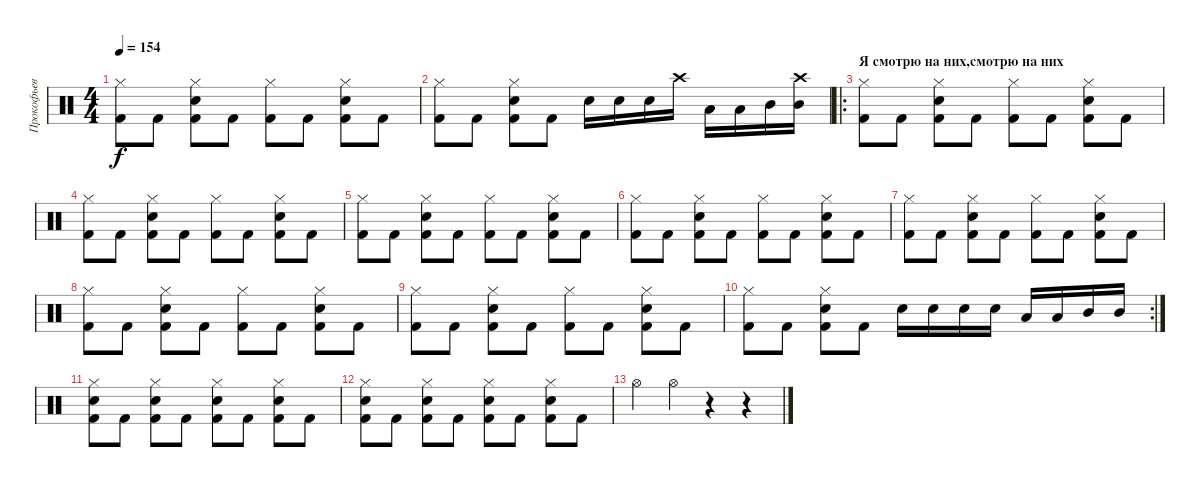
\track ("Прокофьев" "Прокофьев") {instrument percussion}
\staff {score}
\articulation defaults
\ts (4 4)
\tempo 154
\clef neutral
\ks c
("Hi-Hat (closed)" "Kick (hit) 2").8{dy f} "Kick (hit) 2".8 ("Hi-Hat (closed)" "Snare (hit) 2" "Kick (hit) 2").8 "Kick (hit) 2".8 ("Hi-Hat (closed)" "Kick (hit) 2").8 "Kick (hit) 2".8 ("Hi-Hat (closed)" "Snare (hit) 2" "Kick (hit) 2").8 "Kick (hit) 2".8 |
("Hi-Hat (closed)" "Kick (hit) 2").8 "Kick (hit) 2".8 ("Hi-Hat (closed)" "Snare (hit) 2" "Kick (hit) 2").8 "Kick (hit) 2".8 "Snare (hit) 2".16 "Snare (hit) 2".16 "Snare (hit) 2".16 "Crash high (hit)".16 "Low Tom (hit)".16 "Low Tom (hit)".16 "Mid Tom (hit)".16 ("Crash high (hit)" "Mid Tom (hit)").16 |
\ro
\section ("" "Я смотрю на них,смотрю на них")
("Hi-Hat (closed)" "Kick (hit) 2").8 "Kick (hit) 2".8 ("Hi-Hat (closed)" "Snare (hit) 2" "Kick (hit) 2").8 "Kick (hit) 2".8 ("Hi-Hat (closed)" "Kick (hit) 2").8 "Kick (hit) 2".8 ("Hi-Hat (closed)" "Snare (hit) 2" "Kick (hit) 2").8 "Kick (hit) 2".8 |
("Hi-Hat (closed)" "Kick (hit) 2").8 "Kick (hit) 2".8 ("Hi-Hat (closed)" "Snare (hit) 2" "Kick (hit) 2").8 "Kick (hit) 2".8 ("Hi-Hat (closed)" "Kick (hit) 2").8 "Kick (hit) 2".8 ("Hi-Hat (closed)" "Snare (hit) 2" "Kick (hit) 2").8 "Kick (hit) 2".8 |
("Hi-Hat (closed)" "Kick (hit) 2").8 "Kick (hit) 2".8 ("Hi-Hat (closed)" "Snare (hit) 2" "Kick (hit) 2").8 "Kick (hit) 2".8 ("Hi-Hat (closed)" "Kick (hit) 2").8 "Kick (hit) 2".8 ("Hi-Hat (closed)" "Snare (hit) 2" "Kick (hit) 2").8 "Kick (hit) 2".8 |
("Hi-Hat (closed)" "Kick (hit) 2").8 "Kick (hit) 2".8 ("Hi-Hat (closed)" "Snare (hit) 2" "Kick (hit) 2").8 "Kick (hit) 2".8 ("Hi-Hat (closed)" "Kick (hit) 2").8 "Kick (hit) 2".8 ("Hi-Hat (closed)" "Snare (hit) 2" "Kick (hit) 2").8 "Kick (hit) 2".8 |
("Hi-Hat (closed)" "Kick (hit) 2").8 "Kick (hit) 2".8 ("Hi-Hat (closed)" "Snare (hit) 2" "Kick (hit) 2").8 "Kick (hit) 2".8 ("Hi-Hat (closed)" "Kick (hit) 2").8 "Kick (hit) 2".8 ("Hi-Hat (closed)" "Snare (hit) 2" "Kick (hit) 2").8 "Kick (hit) 2".8 |
("Hi-Hat (closed)" "Kick (hit) 2").8 "Kick (hit) 2".8 ("Hi-Hat (closed)" "Snare (hit) 2" "Kick (hit) 2").8 "Kick (hit) 2".8 ("Hi-Hat (closed)" "Kick (hit) 2").8 "Kick (hit) 2".8 ("Hi-Hat (closed)" "Snare (hit) 2" "Kick (hit) 2").8 "Kick (hit) 2".8 |
("Hi-Hat (closed)" "Kick (hit) 2").8 "Kick (hit) 2".8 ("Hi-Hat (closed)" "Snare (hit) 2" "Kick (hit) 2").8 "Kick (hit) 2".8 ("Hi-Hat (closed)" "Kick (hit) 2").8 "Kick (hit) 2".8 ("Hi-Hat (closed)" "Snare (hit) 2" "Kick (hit) 2").8 "Kick (hit) 2".8 |
\rc 2
("Hi-Hat (closed)" "Kick (hit) 2").8 "Kick (hit) 2".8 ("Hi-Hat (closed)" "Snare (hit) 2" "Kick (hit) 2").8 "Kick (hit) 2".8 "Snare (hit) 2".16 "Snare (hit) 2".16 "Snare (hit) 2".16 "Snare (hit) 2".16 "Low Tom (hit)".16 "Low Tom (hit)".16 "Mid Tom (hit)".16 "Mid Tom (hit)".16 |
("Hi-Hat (closed)" "Snare (hit) 2" "Kick (hit) 2").8 "Kick (hit) 2".8 ("Hi-Hat (closed)" "Snare (hit) 2" "Kick (hit) 2").8 "Kick (hit) 2".8 ("Hi-Hat (closed)" "Snare (hit) 2" "Kick (hit) 2").8 "Kick (hit) 2".8 ("Hi-Hat (closed)" "Snare (hit) 2" "Kick (hit) 2").8 "Kick (hit) 2".8 |
("Hi-Hat (closed)" "Snare (hit) 2" "Kick (hit) 2").8 "Kick (hit) 2".8 ("Hi-Hat (closed)" "Snare (hit) 2" "Kick (hit) 2").8 "Kick (hit) 2".8 ("Hi-Hat (closed)" "Snare (hit) 2" "Kick (hit) 2").8 "Kick (hit) 2".8 ("Hi-Hat (closed)" "Snare (hit) 2" "Kick (hit) 2").8 "Kick (hit) 2".8 |
"Hi-Hat (open)".4 "Hi-Hat (open)".4 r.4 r.4
